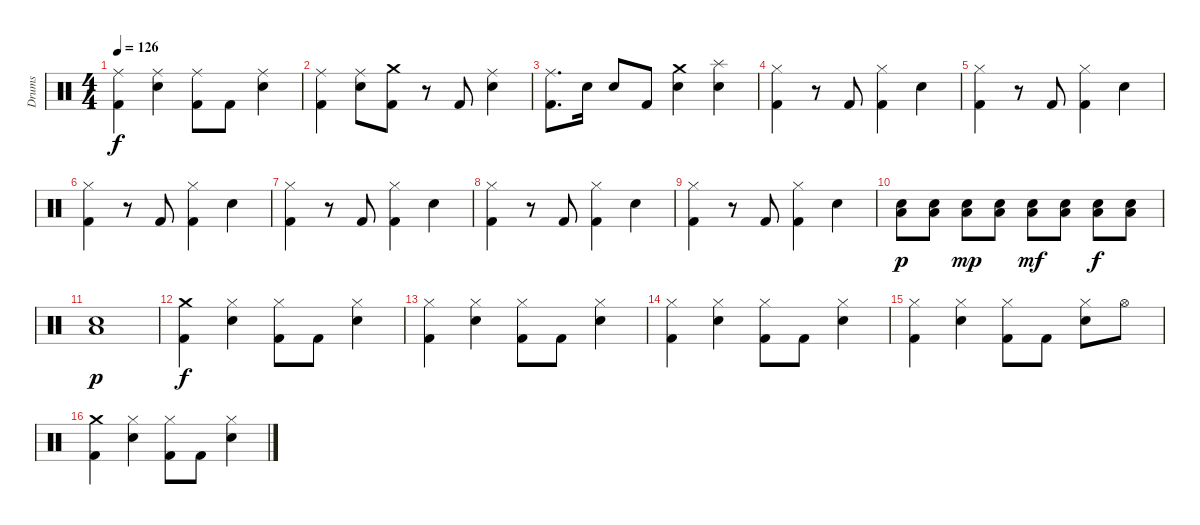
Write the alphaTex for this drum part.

\track ("Drums" "Drums") {instrument percussion}
\staff {score}
\articulation defaults
\ts (4 4)
\tempo 126
\clef neutral
\ks c
("Ride (middle)" "Kick (hit) 2").4{dy f} ("Ride (middle)" "Electric Snare (hit)").4 ("Ride (middle)" "Kick (hit) 2").8 "Kick (hit) 2".8 ("Ride (middle)" "Electric Snare (hit)").4 |
("Ride (middle)" "Kick (hit) 2").4 ("Ride (middle)" "Electric Snare (hit)").8 ("Crash medium (hit)" "Kick (hit) 2").8 r.8 "Kick (hit) 2".8 ("Ride (middle)" "Electric Snare (hit)").4 |
("Ride (middle)" "Kick (hit) 2").8{d} "Electric Snare (hit)".16 "Electric Snare (hit)".8 "Kick (hit) 2".8 ("Crash medium (hit)" "Electric Snare (hit)").4 ("Splash (hit)" "Electric Snare (hit)").4 |
("Hi-Hat (closed)" "Kick (hit) 2").4 r.8 "Kick (hit) 2".8 ("Hi-Hat (closed)" "Kick (hit) 2").4 "Electric Snare (hit)".4 |
("Hi-Hat (closed)" "Kick (hit) 2").4 r.8 "Kick (hit) 2".8 ("Hi-Hat (closed)" "Kick (hit) 2").4 "Electric Snare (hit)".4 |
("Hi-Hat (closed)" "Kick (hit) 2").4 r.8 "Kick (hit) 2".8 ("Hi-Hat (closed)" "Kick (hit) 2").4 "Electric Snare (hit)".4 |
("Hi-Hat (closed)" "Kick (hit) 2").4 r.8 "Kick (hit) 2".8 ("Hi-Hat (closed)" "Kick (hit) 2").4 "Electric Snare (hit)".4 |
("Hi-Hat (closed)" "Kick (hit) 2").4 r.8 "Kick (hit) 2".8 ("Hi-Hat (closed)" "Kick (hit) 2").4 "Electric Snare (hit)".4 |
("Hi-Hat (closed)" "Kick (hit) 2").4 r.8 "Kick (hit) 2".8 ("Hi-Hat (closed)" "Kick (hit) 2").4 "Electric Snare (hit)".4 |
("Electric Snare (hit)" "Low Floor Tom (hit)").8{dy p} ("Electric Snare (hit)" "Low Floor Tom (hit)").8 ("Electric Snare (hit)" "Low Floor Tom (hit)").8{dy mp} ("Electric Snare (hit)" "Low Floor Tom (hit)").8 ("Electric Snare (hit)" "Low Floor Tom (hit)").8{dy mf} ("Electric Snare (hit)" "Low Floor Tom (hit)").8 ("Electric Snare (hit)" "Low Floor Tom (hit)").8{dy f} ("Electric Snare (hit)" "Low Floor Tom (hit)").8 |
("Electric Snare (hit)" "Low Floor Tom (hit)").1{dy p} |
("Crash medium (hit)" "Kick (hit) 2").4{dy f} ("Hi-Hat (closed)" "Electric Snare (hit)").4 ("Hi-Hat (closed)" "Kick (hit) 2").8 "Kick (hit) 2".8 ("Hi-Hat (closed)" "Electric Snare (hit)").4 |
("Hi-Hat (closed)" "Kick (hit) 2").4 ("Hi-Hat (closed)" "Electric Snare (hit)").4 ("Hi-Hat (closed)" "Kick (hit) 2").8 "Kick (hit) 2".8 ("Hi-Hat (closed)" "Electric Snare (hit)").4 |
("Hi-Hat (closed)" "Kick (hit) 2").4 ("Hi-Hat (closed)" "Electric Snare (hit)").4 ("Hi-Hat (closed)" "Kick (hit) 2").8 "Kick (hit) 2".8 ("Hi-Hat (closed)" "Electric Snare (hit)").4 |
("Hi-Hat (closed)" "Kick (hit) 2").4 ("Hi-Hat (closed)" "Electric Snare (hit)").4 ("Hi-Hat (closed)" "Kick (hit) 2").8 "Kick (hit) 2".8 ("Hi-Hat (closed)" "Electric Snare (hit)").8 "Hi-Hat (open)".8 |
("Crash medium (hit)" "Kick (hit) 2").4 ("Hi-Hat (closed)" "Electric Snare (hit)").4 ("Hi-Hat (closed)" "Kick (hit) 2").8 "Kick (hit) 2".8 ("Hi-Hat (closed)" "Electric Snare (hit)").4
